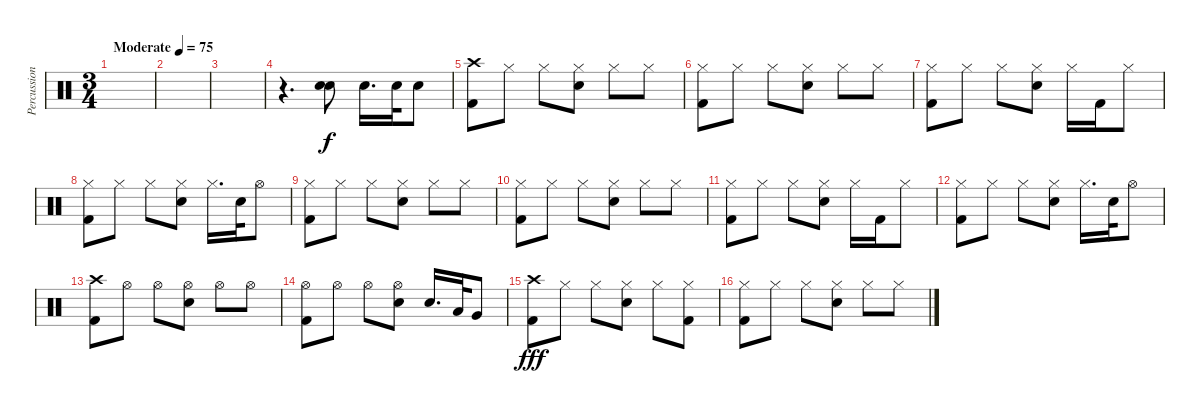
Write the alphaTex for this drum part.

\track ("Percussions" "Percussion") {instrument percussion}
\staff {score}
\articulation defaults
\ts (3 4)
\tempo (75 "Moderate")
\clef neutral
\ks c
|
|
|
r.4{d} ("Snare (hit) 2" "Snare (hit) 2").8{bd 120} "Snare (hit) 2".16{d} "Snare (hit) 2".32 "Snare (hit) 2".8 |
("Kick (hit) 2" "Crash high (hit)").8 "Hi-Hat (closed)".8 "Hi-Hat (closed)".8 ("Snare (hit) 2" "Hi-Hat (closed)").8 "Hi-Hat (closed)".8 "Hi-Hat (closed)".8 |
("Kick (hit) 2" "Hi-Hat (closed)").8 "Hi-Hat (closed)".8 "Hi-Hat (closed)".8 ("Snare (hit) 2" "Hi-Hat (closed)").8 "Hi-Hat (closed)".8 "Hi-Hat (closed)".8 |
("Kick (hit) 2" "Hi-Hat (closed)").8 "Hi-Hat (closed)".8 "Hi-Hat (closed)".8 ("Snare (hit) 2" "Hi-Hat (closed)").8 "Hi-Hat (closed)".16 "Kick (hit) 2".16 "Hi-Hat (closed)".8 |
("Kick (hit) 2" "Hi-Hat (closed)").8 "Hi-Hat (closed)".8 "Hi-Hat (closed)".8 ("Snare (hit) 2" "Hi-Hat (closed)").8 "Hi-Hat (closed)".16{d} "Snare (hit) 2".32 "Hi-Hat (open)".8 |
("Kick (hit) 2" "Hi-Hat (closed)").8 "Hi-Hat (closed)".8 "Hi-Hat (closed)".8 ("Snare (hit) 2" "Hi-Hat (closed)").8 "Hi-Hat (closed)".8 "Hi-Hat (closed)".8 |
("Kick (hit) 2" "Hi-Hat (closed)").8 "Hi-Hat (closed)".8 "Hi-Hat (closed)".8 ("Snare (hit) 2" "Hi-Hat (closed)").8 "Hi-Hat (closed)".8 "Hi-Hat (closed)".8 |
("Kick (hit) 2" "Hi-Hat (closed)").8 "Hi-Hat (closed)".8 "Hi-Hat (closed)".8 ("Snare (hit) 2" "Hi-Hat (closed)").8 "Hi-Hat (closed)".16 "Kick (hit) 2".16 "Hi-Hat (closed)".8 |
("Kick (hit) 2" "Hi-Hat (closed)").8 "Hi-Hat (closed)".8 "Hi-Hat (closed)".8 ("Snare (hit) 2" "Hi-Hat (closed)").8 "Hi-Hat (closed)".16{d} "Snare (hit) 2".32 "Hi-Hat (open)".8 |
("Kick (hit) 2" "Crash high (hit)").8 "Hi-Hat (open)".8 "Hi-Hat (open)".8 ("Snare (hit) 2" "Hi-Hat (open)").8 "Hi-Hat (open)".8 "Hi-Hat (open)".8 |
("Kick (hit) 2" "Hi-Hat (open)").8 "Hi-Hat (open)".8 "Hi-Hat (open)".8 ("Snare (hit) 2" "Hi-Hat (open)").8 "Snare (hit) 2".16{d} "Low Tom (hit)".32 "Very Low Tom (hit)".8 |
("Kick (hit) 2" "Crash high (hit)").8{dy fff} "Hi-Hat (closed)".8 "Hi-Hat (closed)".8 ("Snare (hit) 2" "Hi-Hat (closed)").8 "Hi-Hat (closed)".8 ("Kick (hit) 2" "Hi-Hat (closed)").8 |
("Kick (hit) 2" "Hi-Hat (closed)").8 "Hi-Hat (closed)".8 "Hi-Hat (closed)".8 ("Snare (hit) 2" "Hi-Hat (closed)").8 "Hi-Hat (closed)".8 "Hi-Hat (closed)".8
